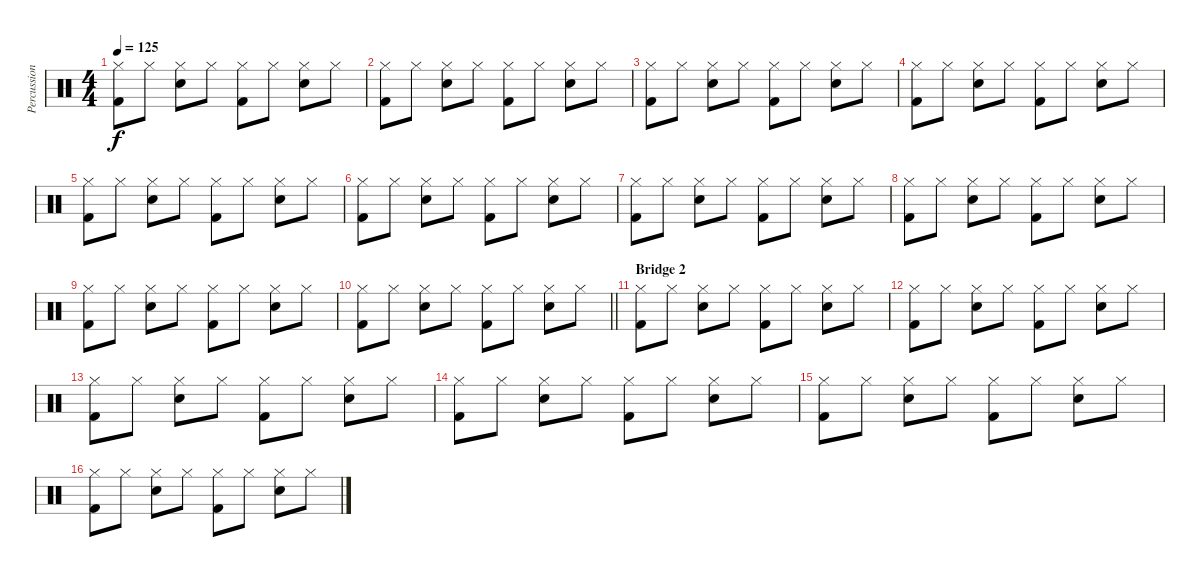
\track ("Percussion" "Percussion") {instrument percussion}
\staff {score}
\articulation defaults
\ts (4 4)
\tempo 125
\clef neutral
\ks c
("Kick (hit) 2" "Hi-Hat (closed)").8{dy f} "Hi-Hat (closed)".8 ("Electric Snare (hit)" "Hi-Hat (closed)").8 "Hi-Hat (closed)".8 ("Kick (hit) 2" "Hi-Hat (closed)").8 "Hi-Hat (closed)".8 ("Electric Snare (hit)" "Hi-Hat (closed)").8 "Hi-Hat (closed)".8 |
("Kick (hit) 2" "Hi-Hat (closed)").8 "Hi-Hat (closed)".8 ("Electric Snare (hit)" "Hi-Hat (closed)").8 "Hi-Hat (closed)".8 ("Kick (hit) 2" "Hi-Hat (closed)").8 "Hi-Hat (closed)".8 ("Electric Snare (hit)" "Hi-Hat (closed)").8 "Hi-Hat (closed)".8 |
("Kick (hit) 2" "Hi-Hat (closed)").8 "Hi-Hat (closed)".8 ("Electric Snare (hit)" "Hi-Hat (closed)").8 "Hi-Hat (closed)".8 ("Kick (hit) 2" "Hi-Hat (closed)").8 "Hi-Hat (closed)".8 ("Electric Snare (hit)" "Hi-Hat (closed)").8 "Hi-Hat (closed)".8 |
("Kick (hit) 2" "Hi-Hat (closed)").8 "Hi-Hat (closed)".8 ("Electric Snare (hit)" "Hi-Hat (closed)").8 "Hi-Hat (closed)".8 ("Kick (hit) 2" "Hi-Hat (closed)").8 "Hi-Hat (closed)".8 ("Electric Snare (hit)" "Hi-Hat (closed)").8 "Hi-Hat (closed)".8 |
("Kick (hit) 2" "Hi-Hat (closed)").8 "Hi-Hat (closed)".8 ("Electric Snare (hit)" "Hi-Hat (closed)").8 "Hi-Hat (closed)".8 ("Kick (hit) 2" "Hi-Hat (closed)").8 "Hi-Hat (closed)".8 ("Electric Snare (hit)" "Hi-Hat (closed)").8 "Hi-Hat (closed)".8 |
("Kick (hit) 2" "Hi-Hat (closed)").8 "Hi-Hat (closed)".8 ("Electric Snare (hit)" "Hi-Hat (closed)").8 "Hi-Hat (closed)".8 ("Kick (hit) 2" "Hi-Hat (closed)").8 "Hi-Hat (closed)".8 ("Electric Snare (hit)" "Hi-Hat (closed)").8 "Hi-Hat (closed)".8 |
("Kick (hit) 2" "Hi-Hat (closed)").8 "Hi-Hat (closed)".8 ("Electric Snare (hit)" "Hi-Hat (closed)").8 "Hi-Hat (closed)".8 ("Kick (hit) 2" "Hi-Hat (closed)").8 "Hi-Hat (closed)".8 ("Electric Snare (hit)" "Hi-Hat (closed)").8 "Hi-Hat (closed)".8 |
("Kick (hit) 2" "Hi-Hat (closed)").8 "Hi-Hat (closed)".8 ("Electric Snare (hit)" "Hi-Hat (closed)").8 "Hi-Hat (closed)".8 ("Kick (hit) 2" "Hi-Hat (closed)").8 "Hi-Hat (closed)".8 ("Electric Snare (hit)" "Hi-Hat (closed)").8 "Hi-Hat (closed)".8 |
("Kick (hit) 2" "Hi-Hat (closed)").8 "Hi-Hat (closed)".8 ("Electric Snare (hit)" "Hi-Hat (closed)").8 "Hi-Hat (closed)".8 ("Kick (hit) 2" "Hi-Hat (closed)").8 "Hi-Hat (closed)".8 ("Electric Snare (hit)" "Hi-Hat (closed)").8 "Hi-Hat (closed)".8 |
\barLineRight lightlight
("Kick (hit) 2" "Hi-Hat (closed)").8 "Hi-Hat (closed)".8 ("Electric Snare (hit)" "Hi-Hat (closed)").8 "Hi-Hat (closed)".8 ("Kick (hit) 2" "Hi-Hat (closed)").8 "Hi-Hat (closed)".8 ("Electric Snare (hit)" "Hi-Hat (closed)").8 "Hi-Hat (closed)".8 |
\section ("" "Bridge 2")
("Kick (hit) 2" "Hi-Hat (closed)").8 "Hi-Hat (closed)".8 ("Electric Snare (hit)" "Hi-Hat (closed)").8 "Hi-Hat (closed)".8 ("Kick (hit) 2" "Hi-Hat (closed)").8 "Hi-Hat (closed)".8 ("Electric Snare (hit)" "Hi-Hat (closed)").8 "Hi-Hat (closed)".8 |
("Kick (hit) 2" "Hi-Hat (closed)").8 "Hi-Hat (closed)".8 ("Electric Snare (hit)" "Hi-Hat (closed)").8 "Hi-Hat (closed)".8 ("Kick (hit) 2" "Hi-Hat (closed)").8 "Hi-Hat (closed)".8 ("Electric Snare (hit)" "Hi-Hat (closed)").8 "Hi-Hat (closed)".8 |
("Kick (hit) 2" "Hi-Hat (closed)").8 "Hi-Hat (closed)".8 ("Electric Snare (hit)" "Hi-Hat (closed)").8 "Hi-Hat (closed)".8 ("Kick (hit) 2" "Hi-Hat (closed)").8 "Hi-Hat (closed)".8 ("Electric Snare (hit)" "Hi-Hat (closed)").8 "Hi-Hat (closed)".8 |
("Kick (hit) 2" "Hi-Hat (closed)").8 "Hi-Hat (closed)".8 ("Electric Snare (hit)" "Hi-Hat (closed)").8 "Hi-Hat (closed)".8 ("Kick (hit) 2" "Hi-Hat (closed)").8 "Hi-Hat (closed)".8 ("Electric Snare (hit)" "Hi-Hat (closed)").8 "Hi-Hat (closed)".8 |
("Kick (hit) 2" "Hi-Hat (closed)").8 "Hi-Hat (closed)".8 ("Electric Snare (hit)" "Hi-Hat (closed)").8 "Hi-Hat (closed)".8 ("Kick (hit) 2" "Hi-Hat (closed)").8 "Hi-Hat (closed)".8 ("Electric Snare (hit)" "Hi-Hat (closed)").8 "Hi-Hat (closed)".8 |
("Kick (hit) 2" "Hi-Hat (closed)").8 "Hi-Hat (closed)".8 ("Electric Snare (hit)" "Hi-Hat (closed)").8 "Hi-Hat (closed)".8 ("Kick (hit) 2" "Hi-Hat (closed)").8 "Hi-Hat (closed)".8 ("Electric Snare (hit)" "Hi-Hat (closed)").8 "Hi-Hat (closed)".8
